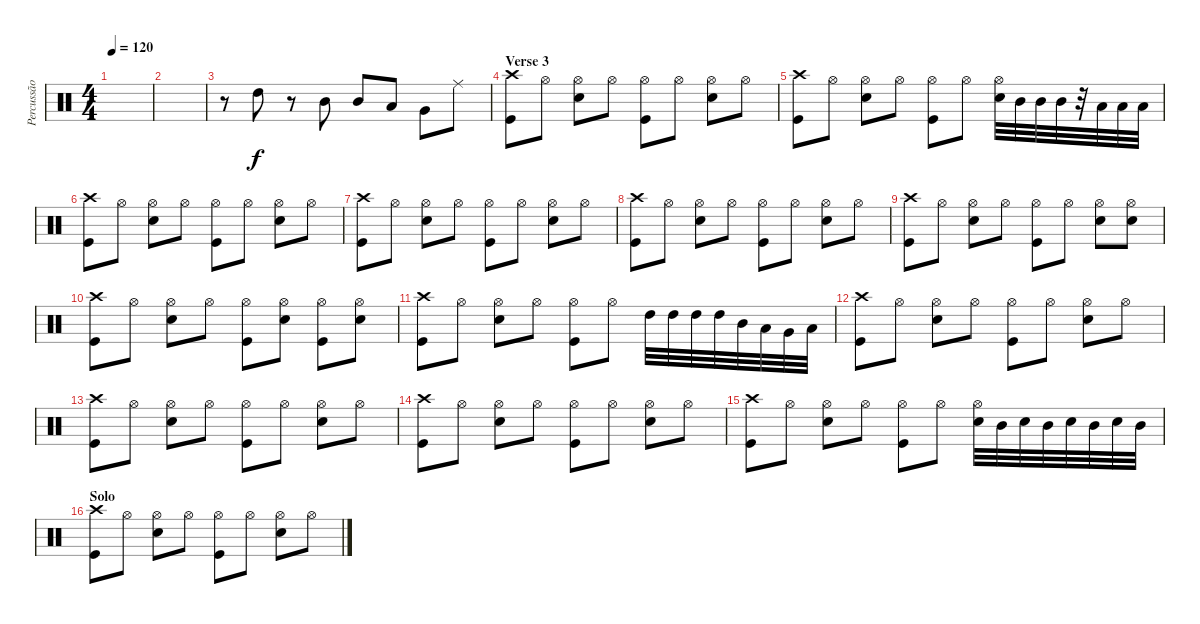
\track ("Percussão" "Percussão") {instrument percussion}
\staff {score}
\articulation defaults
\ts (4 4)
\tempo 120
\clef neutral
\ks c
|
|
r.8 "High Tom (hit)".8 r.8 "Mid Tom (hit)".8 "Mid Tom (hit)".8 "Low Tom (hit)".8 "Very Low Tom (hit)".8 "Ride (middle)".8 |
\section ("" "Verse 3")
("Crash high (hit)" "Kick (hit)").8 "Hi-Hat (open)".8 ("Hi-Hat (open)" "Snare (hit) 2").8 "Hi-Hat (open)".8 ("Hi-Hat (open)" "Kick (hit)").8 "Hi-Hat (open)".8 ("Hi-Hat (open)" "Snare (hit) 2").8 "Hi-Hat (open)".8 |
("Crash high (hit)" "Kick (hit)").8 "Hi-Hat (open)".8 ("Hi-Hat (open)" "Snare (hit) 2").8 "Hi-Hat (open)".8 ("Hi-Hat (open)" "Kick (hit)").8 "Hi-Hat (open)".8 ("Hi-Hat (open)" "Snare (hit) 2").32 "Mid Tom (hit)".32 "Mid Tom (hit)".32 "Mid Tom (hit)".32 r.32 "Low Floor Tom (hit)".32 "Low Floor Tom (hit)".32 "Low Floor Tom (hit)".32 |
("Crash high (hit)" "Kick (hit)").8 "Hi-Hat (open)".8 ("Hi-Hat (open)" "Snare (hit) 2").8 "Hi-Hat (open)".8 ("Hi-Hat (open)" "Kick (hit)").8 "Hi-Hat (open)".8 ("Hi-Hat (open)" "Snare (hit) 2").8 "Hi-Hat (open)".8 |
("Crash high (hit)" "Kick (hit)").8 "Hi-Hat (open)".8 ("Hi-Hat (open)" "Snare (hit) 2").8 "Hi-Hat (open)".8 ("Hi-Hat (open)" "Kick (hit)").8 "Hi-Hat (open)".8 ("Hi-Hat (open)" "Snare (hit) 2").8 "Hi-Hat (open)".8 |
("Crash high (hit)" "Kick (hit)").8 "Hi-Hat (open)".8 ("Hi-Hat (open)" "Snare (hit) 2").8 "Hi-Hat (open)".8 ("Hi-Hat (open)" "Kick (hit)").8 "Hi-Hat (open)".8 ("Hi-Hat (open)" "Snare (hit) 2").8 "Hi-Hat (open)".8 |
("Crash high (hit)" "Kick (hit)").8 "Hi-Hat (open)".8 ("Hi-Hat (open)" "Snare (hit) 2").8 "Hi-Hat (open)".8 ("Hi-Hat (open)" "Kick (hit)").8 "Hi-Hat (open)".8 ("Hi-Hat (open)" "Snare (hit) 2").8 ("Hi-Hat (open)" "Snare (hit) 2").8 |
("Crash high (hit)" "Kick (hit)").8 "Hi-Hat (open)".8 ("Hi-Hat (open)" "Snare (hit) 2").8 "Hi-Hat (open)".8 ("Hi-Hat (open)" "Kick (hit)").8 ("Hi-Hat (open)" "Snare (hit) 2").8 ("Hi-Hat (open)" "Kick (hit)").8 ("Hi-Hat (open)" "Snare (hit) 2").8 |
("Crash high (hit)" "Kick (hit)").8 "Hi-Hat (open)".8 ("Hi-Hat (open)" "Snare (hit) 2").8 "Hi-Hat (open)".8 ("Hi-Hat (open)" "Kick (hit)").8 "Hi-Hat (open)".8 "High Tom (hit)".32 "High Tom (hit)".32 "High Tom (hit)".32 "High Tom (hit)".32 "Mid Tom (hit)".32 "Low Tom (hit)".32 "Very Low Tom (hit)".32 "Low Floor Tom (hit)".32 |
("Crash high (hit)" "Kick (hit)").8 "Hi-Hat (open)".8 ("Hi-Hat (open)" "Snare (hit) 2").8 "Hi-Hat (open)".8 ("Hi-Hat (open)" "Kick (hit)").8 "Hi-Hat (open)".8 ("Hi-Hat (open)" "Snare (hit) 2").8 "Hi-Hat (open)".8 |
("Crash high (hit)" "Kick (hit)").8 "Hi-Hat (open)".8 ("Hi-Hat (open)" "Snare (hit) 2").8 "Hi-Hat (open)".8 ("Hi-Hat (open)" "Kick (hit)").8 "Hi-Hat (open)".8 ("Hi-Hat (open)" "Snare (hit) 2").8 "Hi-Hat (open)".8 |
("Crash high (hit)" "Kick (hit)").8 "Hi-Hat (open)".8 ("Hi-Hat (open)" "Snare (hit) 2").8 "Hi-Hat (open)".8 ("Hi-Hat (open)" "Kick (hit)").8 "Hi-Hat (open)".8 ("Hi-Hat (open)" "Snare (hit) 2").8 "Hi-Hat (open)".8 |
("Crash high (hit)" "Kick (hit)").8 "Hi-Hat (open)".8 ("Hi-Hat (open)" "Snare (hit) 2").8 "Hi-Hat (open)".8 ("Hi-Hat (open)" "Kick (hit)").8 "Hi-Hat (open)".8 ("Hi-Hat (open)" "Snare (hit) 2").32 "Mid Tom (hit)".32 "Snare (hit) 2".32 "Mid Tom (hit)".32 "Snare (hit) 2".32 "Mid Tom (hit)".32 "Snare (hit) 2".32 "Mid Tom (hit)".32 |
\section ("" "Solo")
("Crash high (hit)" "Kick (hit)").8 "Hi-Hat (open)".8 ("Hi-Hat (open)" "Snare (hit) 2").8 "Hi-Hat (open)".8 ("Hi-Hat (open)" "Kick (hit)").8 "Hi-Hat (open)".8 ("Hi-Hat (open)" "Snare (hit) 2").8 "Hi-Hat (open)".8
